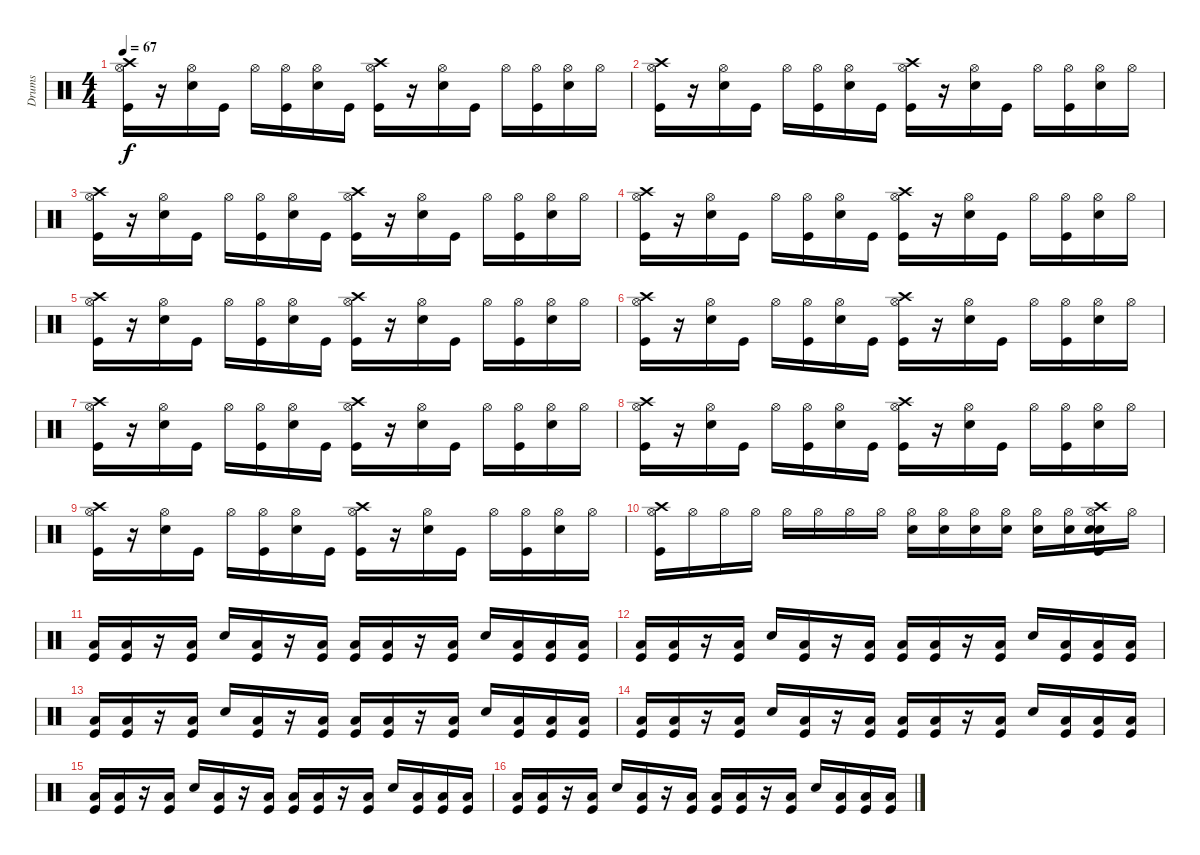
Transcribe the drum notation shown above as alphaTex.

\track ("Drums" "Drums") {instrument percussion}
\staff {score}
\articulation defaults
\ts (4 4)
\tempo 67
\clef neutral
\ks c
("Hi-Hat (open)" "Crash high (hit)" "Kick (hit)").16{dy f} r.16 ("Electric Snare (hit)" "Hi-Hat (open)").16 "Kick (hit)".16 "Hi-Hat (open)".16 ("Kick (hit)" "Hi-Hat (open)").16 ("Electric Snare (hit)" "Hi-Hat (open)").16 "Kick (hit)".16 ("Crash high (hit)" "Kick (hit)" "Hi-Hat (open)").16 r.16 ("Electric Snare (hit)" "Hi-Hat (open)").16 "Kick (hit)".16 "Hi-Hat (open)".16 ("Kick (hit)" "Hi-Hat (open)").16 ("Hi-Hat (open)" "Electric Snare (hit)").16 "Hi-Hat (open)".16 |
("Crash high (hit)" "Hi-Hat (open)" "Kick (hit)").16 r.16 ("Hi-Hat (open)" "Electric Snare (hit)").16 "Kick (hit)".16 "Hi-Hat (open)".16 ("Hi-Hat (open)" "Kick (hit)").16 ("Hi-Hat (open)" "Electric Snare (hit)").16 "Kick (hit)".16 ("Hi-Hat (open)" "Kick (hit)" "Crash high (hit)").16 r.16 ("Hi-Hat (open)" "Electric Snare (hit)").16 "Kick (hit)".16 "Hi-Hat (open)".16 ("Kick (hit)" "Hi-Hat (open)").16 ("Hi-Hat (open)" "Electric Snare (hit)").16 "Hi-Hat (open)".16 |
("Hi-Hat (open)" "Crash high (hit)" "Kick (hit)").16 r.16 ("Hi-Hat (open)" "Electric Snare (hit)").16 "Kick (hit)".16 "Hi-Hat (open)".16 ("Hi-Hat (open)" "Kick (hit)").16 ("Electric Snare (hit)" "Hi-Hat (open)").16 "Kick (hit)".16 ("Hi-Hat (open)" "Kick (hit)" "Crash high (hit)").16 r.16 ("Electric Snare (hit)" "Hi-Hat (open)").16 "Kick (hit)".16 "Hi-Hat (open)".16 ("Hi-Hat (open)" "Kick (hit)").16 ("Hi-Hat (open)" "Electric Snare (hit)").16 "Hi-Hat (open)".16 |
("Hi-Hat (open)" "Crash high (hit)" "Kick (hit)").16 r.16 ("Hi-Hat (open)" "Electric Snare (hit)").16 "Kick (hit)".16 "Hi-Hat (open)".16 ("Hi-Hat (open)" "Kick (hit)").16 ("Electric Snare (hit)" "Hi-Hat (open)").16 "Kick (hit)".16 ("Hi-Hat (open)" "Kick (hit)" "Crash high (hit)").16 r.16 ("Electric Snare (hit)" "Hi-Hat (open)").16 "Kick (hit)".16 "Hi-Hat (open)".16 ("Hi-Hat (open)" "Kick (hit)").16 ("Hi-Hat (open)" "Electric Snare (hit)").16 "Hi-Hat (open)".16 |
("Hi-Hat (open)" "Crash high (hit)" "Kick (hit)").16 r.16 ("Hi-Hat (open)" "Electric Snare (hit)").16 "Kick (hit)".16 "Hi-Hat (open)".16 ("Hi-Hat (open)" "Kick (hit)").16 ("Electric Snare (hit)" "Hi-Hat (open)").16 "Kick (hit)".16 ("Hi-Hat (open)" "Kick (hit)" "Crash high (hit)").16 r.16 ("Electric Snare (hit)" "Hi-Hat (open)").16 "Kick (hit)".16 "Hi-Hat (open)".16 ("Hi-Hat (open)" "Kick (hit)").16 ("Hi-Hat (open)" "Electric Snare (hit)").16 "Hi-Hat (open)".16 |
("Hi-Hat (open)" "Crash high (hit)" "Kick (hit)").16 r.16 ("Hi-Hat (open)" "Electric Snare (hit)").16 "Kick (hit)".16 "Hi-Hat (open)".16 ("Hi-Hat (open)" "Kick (hit)").16 ("Electric Snare (hit)" "Hi-Hat (open)").16 "Kick (hit)".16 ("Hi-Hat (open)" "Kick (hit)" "Crash high (hit)").16 r.16 ("Electric Snare (hit)" "Hi-Hat (open)").16 "Kick (hit)".16 "Hi-Hat (open)".16 ("Hi-Hat (open)" "Kick (hit)").16 ("Hi-Hat (open)" "Electric Snare (hit)").16 "Hi-Hat (open)".16 |
("Hi-Hat (open)" "Crash high (hit)" "Kick (hit)").16 r.16 ("Hi-Hat (open)" "Electric Snare (hit)").16 "Kick (hit)".16 "Hi-Hat (open)".16 ("Hi-Hat (open)" "Kick (hit)").16 ("Electric Snare (hit)" "Hi-Hat (open)").16 "Kick (hit)".16 ("Hi-Hat (open)" "Kick (hit)" "Crash high (hit)").16 r.16 ("Electric Snare (hit)" "Hi-Hat (open)").16 "Kick (hit)".16 "Hi-Hat (open)".16 ("Hi-Hat (open)" "Kick (hit)").16 ("Hi-Hat (open)" "Electric Snare (hit)").16 "Hi-Hat (open)".16 |
("Hi-Hat (open)" "Crash high (hit)" "Kick (hit)").16 r.16 ("Hi-Hat (open)" "Electric Snare (hit)").16 "Kick (hit)".16 "Hi-Hat (open)".16 ("Hi-Hat (open)" "Kick (hit)").16 ("Electric Snare (hit)" "Hi-Hat (open)").16 "Kick (hit)".16 ("Hi-Hat (open)" "Kick (hit)" "Crash high (hit)").16 r.16 ("Electric Snare (hit)" "Hi-Hat (open)").16 "Kick (hit)".16 "Hi-Hat (open)".16 ("Hi-Hat (open)" "Kick (hit)").16 ("Hi-Hat (open)" "Electric Snare (hit)").16 "Hi-Hat (open)".16 |
("Hi-Hat (open)" "Crash high (hit)" "Kick (hit)").16 r.16 ("Hi-Hat (open)" "Electric Snare (hit)").16 "Kick (hit)".16 "Hi-Hat (open)".16 ("Hi-Hat (open)" "Kick (hit)").16 ("Electric Snare (hit)" "Hi-Hat (open)").16 "Kick (hit)".16 ("Hi-Hat (open)" "Kick (hit)" "Crash high (hit)").16 r.16 ("Electric Snare (hit)" "Hi-Hat (open)").16 "Kick (hit)".16 "Hi-Hat (open)".16 ("Hi-Hat (open)" "Kick (hit)").16 ("Hi-Hat (open)" "Electric Snare (hit)").16 "Hi-Hat (open)".16 |
("Hi-Hat (open)" "Crash high (hit)" "Kick (hit)").16 "Hi-Hat (open)".16 "Hi-Hat (open)".16 "Hi-Hat (open)".16 "Hi-Hat (open)".16 "Hi-Hat (open)".16 "Hi-Hat (open)".16 "Hi-Hat (open)".16 ("Hi-Hat (open)" "Electric Snare (hit)").16 ("Electric Snare (hit)" "Hi-Hat (open)").16 ("Electric Snare (hit)" "Hi-Hat (open)").16 ("Hi-Hat (open)" "Electric Snare (hit)").16 ("Hi-Hat (open)" "Electric Snare (hit)").16 ("Hi-Hat (open)" "Electric Snare (hit)").16 ("Snare (hit) 2" "Kick (hit)" "Crash high (hit)" "Hi-Hat (open)" "Metronome (bell)").16 "Hi-Hat (open)".16 |
("Kick (hit)" "Low Tom (hit)").16 ("Low Tom (hit)" "Kick (hit)").16 r.16 ("Low Tom (hit)" "Kick (hit)").16 "Metronome (bell)".16 ("Kick (hit)" "Low Tom (hit)").16 r.16 ("Kick (hit)" "Low Tom (hit)").16 ("Kick (hit)" "Low Tom (hit)").16 ("Kick (hit)" "Low Tom (hit)").16 r.16 ("Kick (hit)" "Low Tom (hit)").16 "Metronome (bell)".16 ("Low Tom (hit)" "Kick (hit)").16 ("Kick (hit)" "Low Tom (hit)").16 ("Kick (hit)" "Low Tom (hit)").16 |
("Low Tom (hit)" "Kick (hit)").16 ("Low Tom (hit)" "Kick (hit)").16 r.16 ("Kick (hit)" "Low Tom (hit)").16 "Metronome (bell)".16 ("Kick (hit)" "Low Tom (hit)").16 r.16 ("Kick (hit)" "Low Tom (hit)").16 ("Low Tom (hit)" "Kick (hit)").16 ("Low Tom (hit)" "Kick (hit)").16 r.16 ("Low Tom (hit)" "Kick (hit)").16 "Metronome (bell)".16 ("Kick (hit)" "Low Tom (hit)").16 ("Kick (hit)" "Low Tom (hit)").16 ("Low Tom (hit)" "Kick (hit)").16 |
("Kick (hit)" "Low Tom (hit)").16 ("Kick (hit)" "Low Tom (hit)").16 r.16 ("Low Tom (hit)" "Kick (hit)").16 "Metronome (bell)".16 ("Kick (hit)" "Low Tom (hit)").16 r.16 ("Low Tom (hit)" "Kick (hit)").16 ("Low Tom (hit)" "Kick (hit)").16 ("Kick (hit)" "Low Tom (hit)").16 r.16 ("Low Tom (hit)" "Kick (hit)").16 "Metronome (bell)".16 ("Kick (hit)" "Low Tom (hit)").16 ("Low Tom (hit)" "Kick (hit)").16 ("Low Tom (hit)" "Kick (hit)").16 |
("Low Tom (hit)" "Kick (hit)").16 ("Low Tom (hit)" "Kick (hit)").16 r.16 ("Low Tom (hit)" "Kick (hit)").16 "Metronome (bell)".16 ("Low Tom (hit)" "Kick (hit)").16 r.16 ("Kick (hit)" "Low Tom (hit)").16 ("Kick (hit)" "Low Tom (hit)").16 ("Low Tom (hit)" "Kick (hit)").16 r.16 ("Kick (hit)" "Low Tom (hit)").16 "Metronome (bell)".16 ("Low Tom (hit)" "Kick (hit)").16 ("Low Tom (hit)" "Kick (hit)").16 ("Kick (hit)" "Low Tom (hit)").16 |
("Low Tom (hit)" "Kick (hit)").16 ("Low Tom (hit)" "Kick (hit)").16 r.16 ("Kick (hit)" "Low Tom (hit)").16 "Metronome (bell)".16 ("Low Tom (hit)" "Kick (hit)").16 r.16 ("Low Tom (hit)" "Kick (hit)").16 ("Kick (hit)" "Low Tom (hit)").16 ("Kick (hit)" "Low Tom (hit)").16 r.16 ("Kick (hit)" "Low Tom (hit)").16 "Metronome (bell)".16 ("Kick (hit)" "Low Tom (hit)").16 ("Kick (hit)" "Low Tom (hit)").16 ("Low Tom (hit)" "Kick (hit)").16 |
("Kick (hit)" "Low Tom (hit)").16 ("Kick (hit)" "Low Tom (hit)").16 r.16 ("Low Tom (hit)" "Kick (hit)").16 "Metronome (bell)".16 ("Kick (hit)" "Low Tom (hit)").16 r.16 ("Low Tom (hit)" "Kick (hit)").16 ("Low Tom (hit)" "Kick (hit)").16 ("Kick (hit)" "Low Tom (hit)").16 r.16 ("Low Tom (hit)" "Kick (hit)").16 "Metronome (bell)".16 ("Low Tom (hit)" "Kick (hit)").16 ("Low Tom (hit)" "Kick (hit)").16 ("Low Tom (hit)" "Kick (hit)").16
